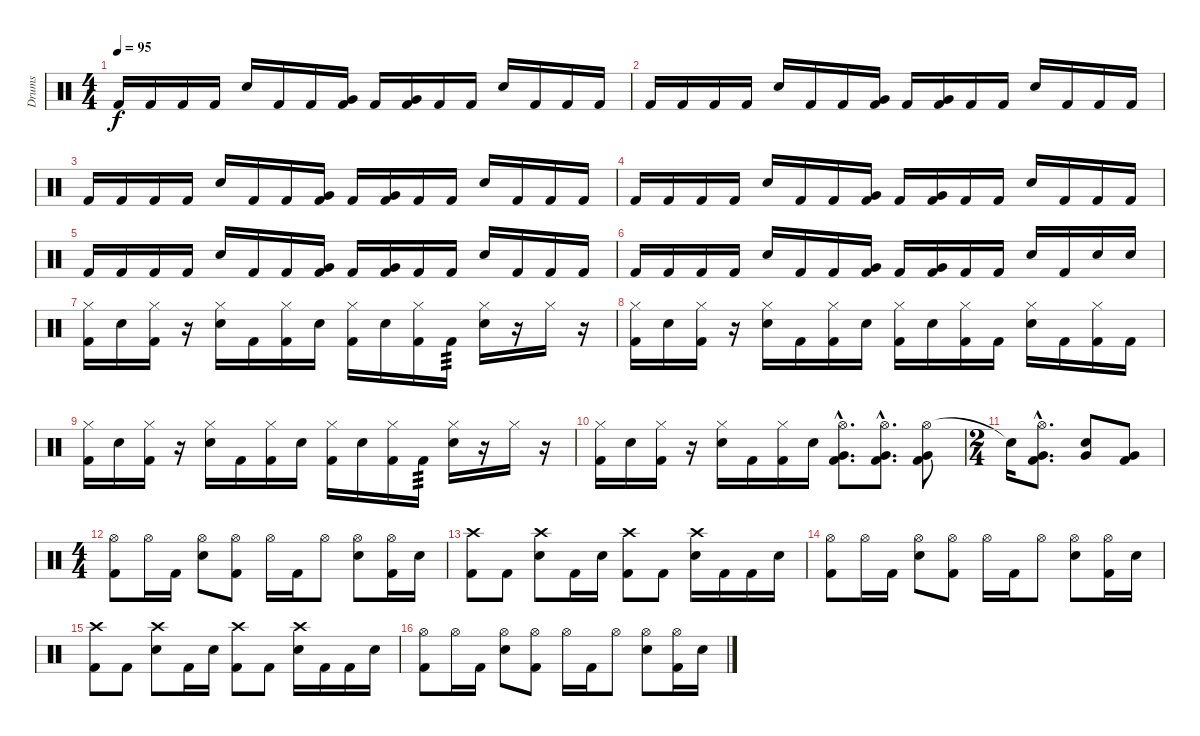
\track ("Drums" "Drums") {instrument percussion}
\staff {score}
\articulation defaults
\ts (4 4)
\tempo 95
\clef neutral
\ks c "Kick (hit) 2".16{dy f} "Kick (hit) 2".16 "Kick (hit) 2".16 "Kick (hit) 2".16 "Snare (hit) 2".16 "Kick (hit) 2".16 "Kick (hit) 2".16
("Kick (hit) 2" "Very Low Tom (hit)").16 "Kick (hit) 2".16 ("Kick (hit) 2" "Very Low Tom (hit)").16 "Kick (hit) 2".16 "Kick (hit) 2".16 "Snare (hit) 2".16 "Kick (hit) 2".16 "Kick (hit) 2".16 "Kick (hit) 2".16 |
"Kick (hit) 2".16 "Kick (hit) 2".16 "Kick (hit) 2".16 "Kick (hit) 2".16 "Snare (hit) 2".16 "Kick (hit) 2".16 "Kick (hit) 2".16 ("Kick (hit) 2" "Very Low Tom (hit)").16 "Kick (hit) 2".16 ("Kick (hit) 2" "Very Low Tom (hit)").16 "Kick (hit) 2".16 "Kick (hit) 2".16 "Snare (hit) 2".16 "Kick (hit) 2".16 "Kick (hit) 2".16 "Kick (hit) 2".16 |
"Kick (hit) 2".16 "Kick (hit) 2".16 "Kick (hit) 2".16 "Kick (hit) 2".16 "Snare (hit) 2".16 "Kick (hit) 2".16 "Kick (hit) 2".16 ("Kick (hit) 2" "Very Low Tom (hit)").16 "Kick (hit) 2".16 ("Kick (hit) 2" "Very Low Tom (hit)").16 "Kick (hit) 2".16 "Kick (hit) 2".16 "Snare (hit) 2".16 "Kick (hit) 2".16 "Kick (hit) 2".16 "Kick (hit) 2".16 |
"Kick (hit) 2".16 "Kick (hit) 2".16 "Kick (hit) 2".16 "Kick (hit) 2".16 "Snare (hit) 2".16 "Kick (hit) 2".16 "Kick (hit) 2".16 ("Kick (hit) 2" "Very Low Tom (hit)").16 "Kick (hit) 2".16 ("Kick (hit) 2" "Very Low Tom (hit)").16 "Kick (hit) 2".16 "Kick (hit) 2".16 "Snare (hit) 2".16 "Kick (hit) 2".16 "Kick (hit) 2".16 "Kick (hit) 2".16 |
"Kick (hit) 2".16 "Kick (hit) 2".16 "Kick (hit) 2".16 "Kick (hit) 2".16 "Snare (hit) 2".16 "Kick (hit) 2".16 "Kick (hit) 2".16 ("Kick (hit) 2" "Very Low Tom (hit)").16 "Kick (hit) 2".16 ("Kick (hit) 2" "Very Low Tom (hit)").16 "Kick (hit) 2".16 "Kick (hit) 2".16 "Snare (hit) 2".16 "Kick (hit) 2".16 "Kick (hit) 2".16 "Kick (hit) 2".16 |
"Kick (hit) 2".16 "Kick (hit) 2".16 "Kick (hit) 2".16 "Kick (hit) 2".16 "Snare (hit) 2".16 "Kick (hit) 2".16 "Kick (hit) 2".16 ("Kick (hit) 2" "Very Low Tom (hit)").16 "Kick (hit) 2".16 ("Kick (hit) 2" "Very Low Tom (hit)").16 "Kick (hit) 2".16 "Kick (hit) 2".16 "Snare (hit) 2".16 "Kick (hit) 2".16 "Snare (hit) 2".16 "Snare (hit) 2".16 |
("Hi-Hat (closed)" "Kick (hit) 2").16 "Snare (hit) 2".16 ("Hi-Hat (closed)" "Kick (hit) 2").16 r.16 ("Hi-Hat (closed)" "Snare (hit) 2").16 "Kick (hit) 2".16 ("Hi-Hat (closed)" "Kick (hit) 2").16 "Snare (hit) 2".16 ("Hi-Hat (closed)" "Kick (hit) 2").16 "Snare (hit) 2".16 ("Hi-Hat (closed)" "Kick (hit) 2").16 "Kick (hit) 2".16{tp 3} ("Hi-Hat (closed)" "Snare (hit) 2").16 r.16 "Hi-Hat (closed)".16 r.16 |
("Hi-Hat (closed)" "Kick (hit) 2").16 "Snare (hit) 2".16 ("Hi-Hat (closed)" "Kick (hit) 2").16 r.16 ("Hi-Hat (closed)" "Snare (hit) 2").16 "Kick (hit) 2".16 ("Hi-Hat (closed)" "Kick (hit) 2").16 "Snare (hit) 2".16 ("Hi-Hat (closed)" "Kick (hit) 2").16 "Snare (hit) 2".16 ("Hi-Hat (closed)" "Kick (hit) 2").16 "Kick (hit) 2".16 ("Hi-Hat (closed)" "Snare (hit) 2").16 "Kick (hit) 2".16 ("Hi-Hat (closed)" "Kick (hit) 2").16 "Kick (hit) 2".16 |
("Hi-Hat (closed)" "Kick (hit) 2").16 "Snare (hit) 2".16 ("Hi-Hat (closed)" "Kick (hit) 2").16 r.16 ("Hi-Hat (closed)" "Snare (hit) 2").16 "Kick (hit) 2".16 ("Hi-Hat (closed)" "Kick (hit) 2").16 "Snare (hit) 2".16 ("Hi-Hat (closed)" "Kick (hit) 2").16 "Snare (hit) 2".16 ("Hi-Hat (closed)" "Kick (hit) 2").16 "Kick (hit) 2".16{tp 3} ("Hi-Hat (closed)" "Snare (hit) 2").16 r.16 "Hi-Hat (closed)".16 r.16 |
("Hi-Hat (closed)" "Kick (hit) 2").16 "Snare (hit) 2".16 ("Hi-Hat (closed)" "Kick (hit) 2").16 r.16 ("Hi-Hat (closed)" "Snare (hit) 2").16 "Kick (hit) 2".16 ("Hi-Hat (closed)" "Kick (hit) 2").16 "Snare (hit) 2".16 ("Hi-Hat (open)"{hac} "Kick (hit) 2"{hac} "Very Low Tom (hit)"{hac}).8{d} ("Hi-Hat (open)"{hac} "Kick (hit) 2"{hac} "Very Low Tom (hit)"{hac}).8{d} ("Hi-Hat (open)" "Kick (hit) 2" "Very Low Tom (hit)").8 |
\ts (2 4)
"Snare (hit)"{t}.16 ("Hi-Hat (open)"{hac} "Kick (hit) 2"{hac} "Very Low Tom (hit)"{hac}).8{d} ("Snare (hit) 2" "Very Low Tom (hit)").8 ("Kick (hit) 2" "Very Low Tom (hit)").8 |
\ts (4 4)
("Hi-Hat (open)" "Kick (hit) 2").8 "Hi-Hat (open)".16 "Kick (hit) 2".16 ("Hi-Hat (open)" "Snare (hit) 2").8 ("Hi-Hat (open)" "Kick (hit) 2").8 "Hi-Hat (open)".16 "Kick (hit) 2".16 "Hi-Hat (open)".8 ("Hi-Hat (open)" "Snare (hit) 2").8 ("Hi-Hat (open)" "Kick (hit) 2").16 "Snare (hit) 2".16 |
("Crash high (hit)" "Kick (hit) 2").8 "Kick (hit) 2".8 ("Crash high (hit)" "Snare (hit) 2").8 "Kick (hit) 2".16 "Snare (hit) 2".16 ("Crash high (hit)" "Kick (hit) 2").8 "Kick (hit) 2".8 ("Crash high (hit)" "Snare (hit) 2").16 "Kick (hit) 2".16 "Kick (hit) 2".16 "Snare (hit) 2".16 |
("Hi-Hat (open)" "Kick (hit) 2").8 "Hi-Hat (open)".16 "Kick (hit) 2".16 ("Hi-Hat (open)" "Snare (hit) 2").8 ("Hi-Hat (open)" "Kick (hit) 2").8 "Hi-Hat (open)".16 "Kick (hit) 2".16 "Hi-Hat (open)".8 ("Hi-Hat (open)" "Snare (hit) 2").8 ("Hi-Hat (open)" "Kick (hit) 2").16 "Snare (hit) 2".16 |
("Crash high (hit)" "Kick (hit) 2").8 "Kick (hit) 2".8 ("Crash high (hit)" "Snare (hit) 2").8 "Kick (hit) 2".16 "Snare (hit) 2".16 ("Crash high (hit)" "Kick (hit) 2").8 "Kick (hit) 2".8 ("Crash high (hit)" "Snare (hit) 2").16 "Kick (hit) 2".16 "Kick (hit) 2".16 "Snare (hit) 2".16 |
("Hi-Hat (open)" "Kick (hit) 2").8 "Hi-Hat (open)".16 "Kick (hit) 2".16 ("Hi-Hat (open)" "Snare (hit) 2").8 ("Hi-Hat (open)" "Kick (hit) 2").8 "Hi-Hat (open)".16 "Kick (hit) 2".16 "Hi-Hat (open)".8 ("Hi-Hat (open)" "Snare (hit) 2").8 ("Hi-Hat (open)" "Kick (hit) 2").16 "Snare (hit) 2".16
